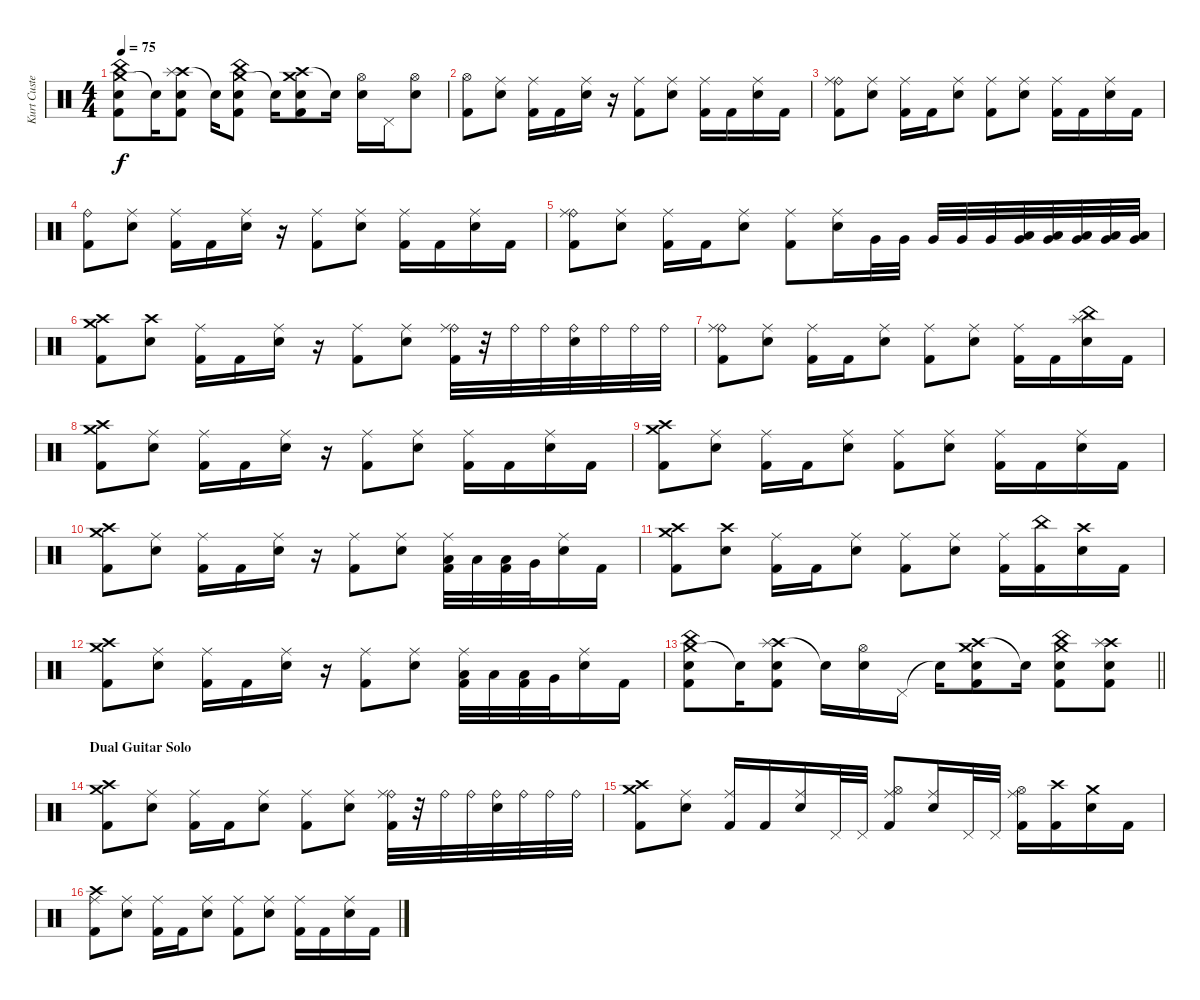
\track ("Kurt Custer - Drums and Percussion" "Kurt Custe") {instrument percussion}
\staff
\articulation defaults
\ts (4 4)
\tempo 75
\clef neutral
\ks c
("Crash medium (hit)" "China (hit)" "Snare (hit) 2" "Kick (hit) 2").8{dy f} "Snare (hit)"{t}.16 ("Crash high (hit)" "Splash (hit)" "Snare (hit) 2" "Kick (hit) 2").8 "Snare (hit)"{t}.16 ("Crash medium (hit)" "China (hit)" "Snare (hit) 2" "Kick (hit) 2").8 "Snare (hit)"{t}.16 ("Crash high (hit)" "Crash medium (hit)" "Snare (hit) 2" "Kick (hit) 2").8 "Snare (hit)"{t}.16 ("Snare (hit) 2" "Hi-Hat (open)").16 "Pedal Hi-Hat (hit)".16 ("Snare (hit) 2" "Hi-Hat (open)").8 |
("Hi-Hat (open)" "Kick (hit) 2").8 ("Ride (middle)" "Snare (hit) 2").8 ("Ride (middle)" "Kick (hit) 2").16 "Kick (hit) 2".16 ("Ride (middle)" "Snare (hit) 2").16 r.16 ("Ride (middle)" "Kick (hit) 2").8 ("Ride (middle)" "Snare (hit) 2").8 ("Ride (middle)" "Kick (hit) 2").16 "Kick (hit) 2".16 ("Ride (middle)" "Snare (hit) 2").16 "Kick (hit) 2".16 |
("Ride (bell)" "Ride (middle)" "Kick (hit) 2").8 ("Ride (middle)" "Snare (hit) 2").8 ("Ride (middle)" "Kick (hit) 2").16 "Kick (hit) 2".16 ("Ride (middle)" "Snare (hit) 2").8 ("Ride (middle)" "Kick (hit) 2").8 ("Ride (middle)" "Snare (hit) 2").8 ("Ride (middle)" "Kick (hit) 2").16 "Kick (hit) 2".16 ("Ride (middle)" "Snare (hit) 2").16 "Kick (hit) 2".16 |
("Ride (bell)" "Kick (hit) 2").8 ("Ride (middle)" "Snare (hit) 2").8 ("Ride (middle)" "Kick (hit) 2").16 "Kick (hit) 2".16 ("Ride (middle)" "Snare (hit) 2").16 r.16 ("Ride (middle)" "Kick (hit) 2").8 ("Ride (middle)" "Snare (hit) 2").8 ("Ride (middle)" "Kick (hit) 2").16 "Kick (hit) 2".16 ("Ride (middle)" "Snare (hit) 2").16 "Kick (hit) 2".16 |
("Ride (bell)" "Ride (middle)" "Kick (hit) 2").8 ("Ride (middle)" "Snare (hit) 2").8 ("Ride (middle)" "Kick (hit) 2").16 "Kick (hit) 2".16 ("Ride (middle)" "Snare (hit) 2").8 ("Ride (middle)" "Kick (hit) 2").8 ("Ride (middle)" "Snare (hit) 2").16 "Very Low Tom (hit)".32 "Very Low Tom (hit)".32 "Very Low Tom (hit)".32 "Very Low Tom (hit)".32 "Very Low Tom (hit)".32 ("Very Low Tom (hit)" "Low Floor Tom (hit)").32 ("Very Low Tom (hit)" "Low Floor Tom (hit)").32 ("Very Low Tom (hit)" "Low Floor Tom (hit)").32 ("Very Low Tom (hit)" "Low Floor Tom (hit)").32 ("Very Low Tom (hit)" "Low Floor Tom (hit)").32 |
("Crash medium (hit)" "Crash high (hit)" "Kick (hit) 2").8 ("Crash high (hit)" "Snare (hit) 2").8 ("Ride (middle)" "Kick (hit) 2").16 "Kick (hit) 2".16 ("Ride (middle)" "Snare (hit) 2").16 r.16 ("Ride (middle)" "Kick (hit) 2").8 ("Ride (middle)" "Snare (hit) 2").8 ("Ride (bell)" "Ride (middle)" "Kick (hit) 2").32 r.32 "Ride (bell)".32 "Ride (bell)".32 ("Ride (bell)" "Snare (hit) 2").32 "Ride (bell)".32 "Ride (bell)".32 "Ride (bell)".32 |
("Ride (bell)" "Ride (middle)" "Kick (hit) 2").8 ("Ride (middle)" "Snare (hit) 2").8 ("Ride (middle)" "Kick (hit) 2").16 "Kick (hit) 2".16 ("Ride (middle)" "Snare (hit) 2").8 ("Ride (middle)" "Kick (hit) 2").8 ("Ride (middle)" "Snare (hit) 2").8 ("Ride (middle)" "Kick (hit) 2").16 "Kick (hit) 2".16 ("China (hit)" "Splash (hit)" "Snare (hit) 2").16 "Kick (hit) 2".16 |
("Crash medium (hit)" "Crash high (hit)" "Kick (hit) 2").8 ("Ride (middle)" "Snare (hit) 2").8 ("Ride (middle)" "Kick (hit) 2").16 "Kick (hit) 2".16 ("Ride (middle)" "Snare (hit) 2").16 r.16 ("Ride (middle)" "Kick (hit) 2").8 ("Ride (middle)" "Snare (hit) 2").8 ("Ride (middle)" "Kick (hit) 2").16 "Kick (hit) 2".16 ("Ride (middle)" "Snare (hit) 2").16 "Kick (hit) 2".16 |
("Crash medium (hit)" "Crash high (hit)" "Kick (hit) 2").8 ("Ride (middle)" "Snare (hit) 2").8 ("Ride (middle)" "Kick (hit) 2").16 "Kick (hit) 2".16 ("Ride (middle)" "Snare (hit) 2").8 ("Ride (middle)" "Kick (hit) 2").8 ("Ride (middle)" "Snare (hit) 2").8 ("Ride (middle)" "Kick (hit) 2").16 "Kick (hit) 2".16 ("Ride (middle)" "Snare (hit) 2").16 "Kick (hit) 2".16 |
("Crash medium (hit)" "Crash high (hit)" "Kick (hit) 2").8 ("Ride (middle)" "Snare (hit) 2").8 ("Ride (middle)" "Kick (hit) 2").16 "Kick (hit) 2".16 ("Ride (middle)" "Snare (hit) 2").16 r.16 ("Ride (middle)" "Kick (hit) 2").8 ("Ride (middle)" "Snare (hit) 2").8 ("Ride (middle)" "Low Tom (hit)" "Kick (hit) 2").32 "Low Tom (hit)".32 ("Low Floor Tom (hit)" "Kick (hit) 2").32 "Very Low Tom (hit)".32 ("Ride (middle)" "Snare (hit) 2").16 "Kick (hit) 2".16 |
("Crash medium (hit)" "Crash high (hit)" "Kick (hit) 2").8 ("Crash high (hit)" "Snare (hit) 2").8 ("Ride (middle)" "Kick (hit) 2").16 "Kick (hit) 2".16 ("Ride (middle)" "Snare (hit) 2").8 ("Ride (middle)" "Kick (hit) 2").8 ("Ride (middle)" "Snare (hit) 2").8 ("Ride (middle)" "Kick (hit) 2").16 ("China (hit)" "Kick (hit) 2").16 ("Crash high (hit)" "Snare (hit) 2").16 "Kick (hit) 2".16 |
("Crash medium (hit)" "Crash high (hit)" "Kick (hit) 2").8 ("Ride (middle)" "Snare (hit) 2").8 ("Ride (middle)" "Kick (hit) 2").16 "Kick (hit) 2".16 ("Ride (middle)" "Snare (hit) 2").16 r.16 ("Ride (middle)" "Kick (hit) 2").8 ("Ride (middle)" "Snare (hit) 2").8 ("Ride (middle)" "Low Tom (hit)" "Kick (hit) 2").32 "Low Tom (hit)".32 ("Low Floor Tom (hit)" "Kick (hit) 2").32 "Very Low Tom (hit)".32 ("Ride (middle)" "Snare (hit) 2").16 "Kick (hit) 2".16 |
\barLineRight lightlight
("Crash medium (hit)" "China (hit)" "Snare (hit) 2" "Kick (hit) 2").8 "Snare (hit)"{t}.16 ("Crash high (hit)" "Splash (hit)" "Snare (hit) 2" "Kick (hit) 2").8 "Snare (hit)"{t}.16 ("Snare (hit) 2" "Hi-Hat (open)").16 "Pedal Hi-Hat (hit)".16 "Snare (hit)"{t}.16 ("Crash high (hit)" "Crash medium (hit)" "Snare (hit) 2" "Kick (hit) 2").8 "Snare (hit)"{t}.16 ("Crash medium (hit)" "China (hit)" "Snare (hit) 2" "Kick (hit) 2").8 ("Crash high (hit)" "Splash (hit)" "Snare (hit) 2" "Kick (hit) 2").8 |
\section ("" "Dual Guitar Solo")
("Crash medium (hit)" "Crash high (hit)" "Kick (hit) 2").8 ("Ride (middle)" "Snare (hit) 2").8 ("Ride (middle)" "Kick (hit) 2").16 "Kick (hit) 2".16 ("Ride (middle)" "Snare (hit) 2").8 ("Ride (middle)" "Kick (hit) 2").8 ("Ride (middle)" "Snare (hit) 2").8 ("Ride (bell)" "Ride (middle)" "Kick (hit) 2").32 r.32 "Ride (bell)".32 "Ride (bell)".32 ("Ride (bell)" "Snare (hit) 2").32 "Ride (bell)".32 "Ride (bell)".32 "Ride (bell)".32 |
("Crash medium (hit)" "Crash high (hit)" "Kick (hit) 2").8 ("Ride (middle)" "Snare (hit) 2").8 ("Ride (middle)" "Kick (hit) 2").16 "Kick (hit) 2".16 ("Ride (middle)" "Snare (hit) 2").16 "Pedal Hi-Hat (hit)".32 "Pedal Hi-Hat (hit)".32 ("Ride (middle)" "Hi-Hat (open)" "Kick (hit) 2").8 ("Ride (middle)" "Snare (hit) 2").16 "Pedal Hi-Hat (hit)".32 "Pedal Hi-Hat (hit)".32 ("Ride (middle)" "Hi-Hat (open)" "Kick (hit) 2").16 ("Crash high (hit)" "Kick (hit) 2").16 ("Crash medium (hit)" "Snare (hit) 2").16 "Kick (hit) 2".16 |
("Crash high (hit)" "Ride (middle)" "Kick (hit) 2").8 ("Ride (middle)" "Snare (hit) 2").8 ("Ride (middle)" "Kick (hit) 2").16 "Kick (hit) 2".16 ("Ride (middle)" "Snare (hit) 2").8 ("Ride (middle)" "Kick (hit) 2").8 ("Ride (middle)" "Snare (hit) 2").8 ("Ride (middle)" "Kick (hit) 2").16 "Kick (hit) 2".16 ("Ride (middle)" "Snare (hit) 2").16 "Kick (hit) 2".16
